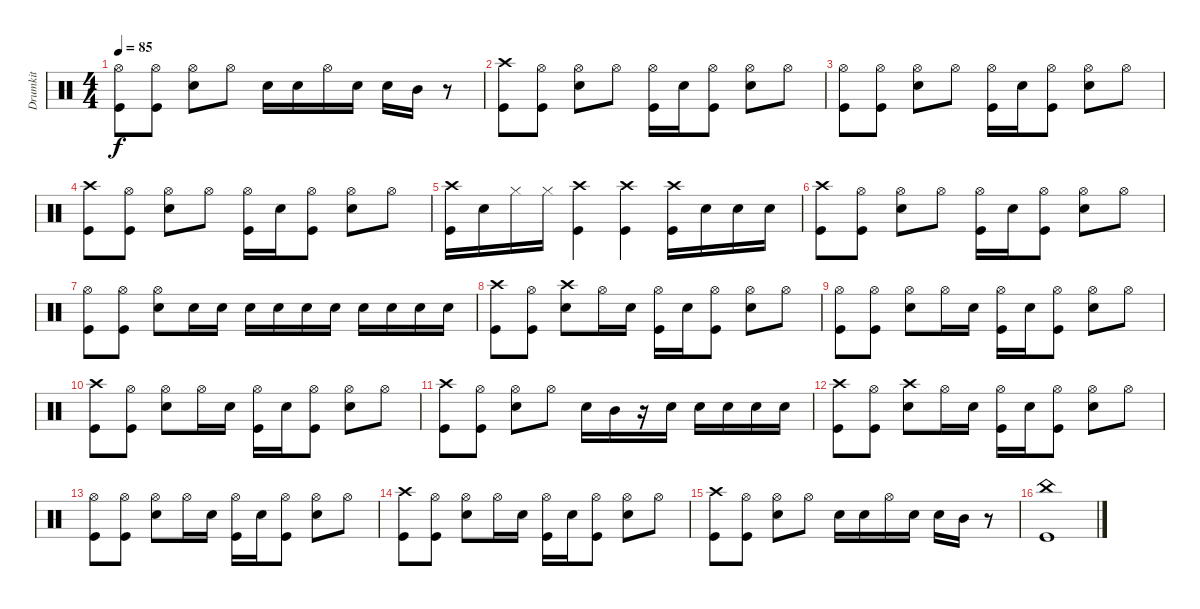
\track ("Drumkit" "Drumkit") {instrument percussion}
\staff {score}
\articulation defaults
\ts (4 4)
\tempo 85
\clef neutral
\ks c
("Hi-Hat (open)" "Kick (hit)").8{dy f} ("Hi-Hat (open)" "Kick (hit)").8 ("Hi-Hat (open)" "Snare (hit) 2").8 "Hi-Hat (open)".8 "Snare (hit) 2".16 "Snare (hit) 2".16 "Hi-Hat (open)".16 "Snare (hit) 2".16 "Snare (hit) 2".16 "Mid Tom (hit)".16 r.8 |
("Crash high (hit)" "Kick (hit)").8 ("Hi-Hat (open)" "Kick (hit)").8 ("Hi-Hat (open)" "Snare (hit) 2").8 "Hi-Hat (open)".8 ("Hi-Hat (open)" "Kick (hit)").16 "Snare (hit) 2".16 ("Hi-Hat (open)" "Kick (hit)").8 ("Hi-Hat (open)" "Snare (hit) 2").8 "Hi-Hat (open)".8 |
("Hi-Hat (open)" "Kick (hit)").8 ("Hi-Hat (open)" "Kick (hit)").8 ("Hi-Hat (open)" "Snare (hit) 2").8 "Hi-Hat (open)".8 ("Hi-Hat (open)" "Kick (hit)").16 "Snare (hit) 2".16 ("Hi-Hat (open)" "Kick (hit)").8 ("Hi-Hat (open)" "Snare (hit) 2").8 "Hi-Hat (open)".8 |
("Crash high (hit)" "Kick (hit)").8 ("Hi-Hat (open)" "Kick (hit)").8 ("Hi-Hat (open)" "Snare (hit) 2").8 "Hi-Hat (open)".8 ("Hi-Hat (open)" "Kick (hit)").16 "Snare (hit) 2".16 ("Hi-Hat (open)" "Kick (hit)").8 ("Hi-Hat (open)" "Snare (hit) 2").8 "Hi-Hat (open)".8 |
("Crash high (hit)" "Kick (hit)").16 "Snare (hit) 2".16 "Hi-Hat (closed)".16 "Hi-Hat (closed)".16 ("Crash high (hit)" "Kick (hit)").4 ("Crash high (hit)" "Kick (hit)").4 ("Crash high (hit)" "Kick (hit)").16 "Snare (hit) 2".16 "Snare (hit) 2".16 "Snare (hit) 2".16 |
("Crash high (hit)" "Kick (hit)").8 ("Hi-Hat (open)" "Kick (hit)").8 ("Hi-Hat (open)" "Snare (hit) 2").8 "Hi-Hat (open)".8 ("Hi-Hat (open)" "Kick (hit)").16 "Snare (hit) 2".16 ("Hi-Hat (open)" "Kick (hit)").8 ("Hi-Hat (open)" "Snare (hit) 2").8 "Hi-Hat (open)".8 |
("Hi-Hat (open)" "Kick (hit)").8 ("Hi-Hat (open)" "Kick (hit)").8 ("Hi-Hat (open)" "Snare (hit) 2").8 "Snare (hit) 2".16 "Snare (hit) 2".16 "Snare (hit) 2".16 "Snare (hit) 2".16 "Snare (hit) 2".16 "Snare (hit) 2".16 "Snare (hit) 2".16 "Snare (hit) 2".16 "Snare (hit) 2".16 "Snare (hit) 2".16 |
("Crash high (hit)" "Kick (hit)").8 ("Hi-Hat (open)" "Kick (hit)").8 ("Crash high (hit)" "Snare (hit) 2").8 "Hi-Hat (open)".16 "Snare (hit) 2".16 ("Hi-Hat (open)" "Kick (hit)").16 "Snare (hit) 2".16 ("Hi-Hat (open)" "Kick (hit)").8 ("Hi-Hat (open)" "Snare (hit) 2").8 "Hi-Hat (open)".8 |
("Hi-Hat (open)" "Kick (hit)").8 ("Hi-Hat (open)" "Kick (hit)").8 ("Hi-Hat (open)" "Snare (hit) 2").8 "Hi-Hat (open)".16 "Snare (hit) 2".16 ("Hi-Hat (open)" "Kick (hit)").16 "Snare (hit) 2".16 ("Hi-Hat (open)" "Kick (hit)").8 ("Hi-Hat (open)" "Snare (hit) 2").8 "Hi-Hat (open)".8 |
("Crash high (hit)" "Kick (hit)").8 ("Hi-Hat (open)" "Kick (hit)").8 ("Hi-Hat (open)" "Snare (hit) 2").8 "Hi-Hat (open)".16 "Snare (hit) 2".16 ("Hi-Hat (open)" "Kick (hit)").16 "Snare (hit) 2".16 ("Hi-Hat (open)" "Kick (hit)").8 ("Hi-Hat (open)" "Snare (hit) 2").8 "Hi-Hat (open)".8 |
("Crash high (hit)" "Kick (hit)").8 ("Hi-Hat (open)" "Kick (hit)").8 ("Hi-Hat (open)" "Snare (hit) 2").8 "Hi-Hat (open)".8 "Snare (hit) 2".16 "Mid Tom (hit)".16 r.16 "Snare (hit) 2".16 "Snare (hit) 2".16 "Snare (hit) 2".16 "Snare (hit) 2".16 "Snare (hit) 2".16 |
("Crash high (hit)" "Kick (hit)").8 ("Hi-Hat (open)" "Kick (hit)").8 ("Crash high (hit)" "Snare (hit) 2").8 "Hi-Hat (open)".16 "Snare (hit) 2".16 ("Hi-Hat (open)" "Kick (hit)").16 "Snare (hit) 2".16 ("Hi-Hat (open)" "Kick (hit)").8 ("Hi-Hat (open)" "Snare (hit) 2").8 "Hi-Hat (open)".8 |
("Hi-Hat (open)" "Kick (hit)").8 ("Hi-Hat (open)" "Kick (hit)").8 ("Hi-Hat (open)" "Snare (hit) 2").8 "Hi-Hat (open)".16 "Snare (hit) 2".16 ("Hi-Hat (open)" "Kick (hit)").16 "Snare (hit) 2".16 ("Hi-Hat (open)" "Kick (hit)").8 ("Hi-Hat (open)" "Snare (hit) 2").8 "Hi-Hat (open)".8 |
("Crash high (hit)" "Kick (hit)").8 ("Hi-Hat (open)" "Kick (hit)").8 ("Hi-Hat (open)" "Snare (hit) 2").8 "Hi-Hat (open)".16 "Snare (hit) 2".16 ("Hi-Hat (open)" "Kick (hit)").16 "Snare (hit) 2".16 ("Hi-Hat (open)" "Kick (hit)").8 ("Hi-Hat (open)" "Snare (hit) 2").8 "Hi-Hat (open)".8 |
("Crash high (hit)" "Kick (hit)").8 ("Hi-Hat (open)" "Kick (hit)").8 ("Hi-Hat (open)" "Snare (hit) 2").8 "Hi-Hat (open)".8 "Snare (hit) 2".16 "Snare (hit) 2".16 "Hi-Hat (open)".16 "Snare (hit) 2".16 "Snare (hit) 2".16 "Mid Tom (hit)".16 r.8 |
("China (hit)" "Kick (hit)").1
